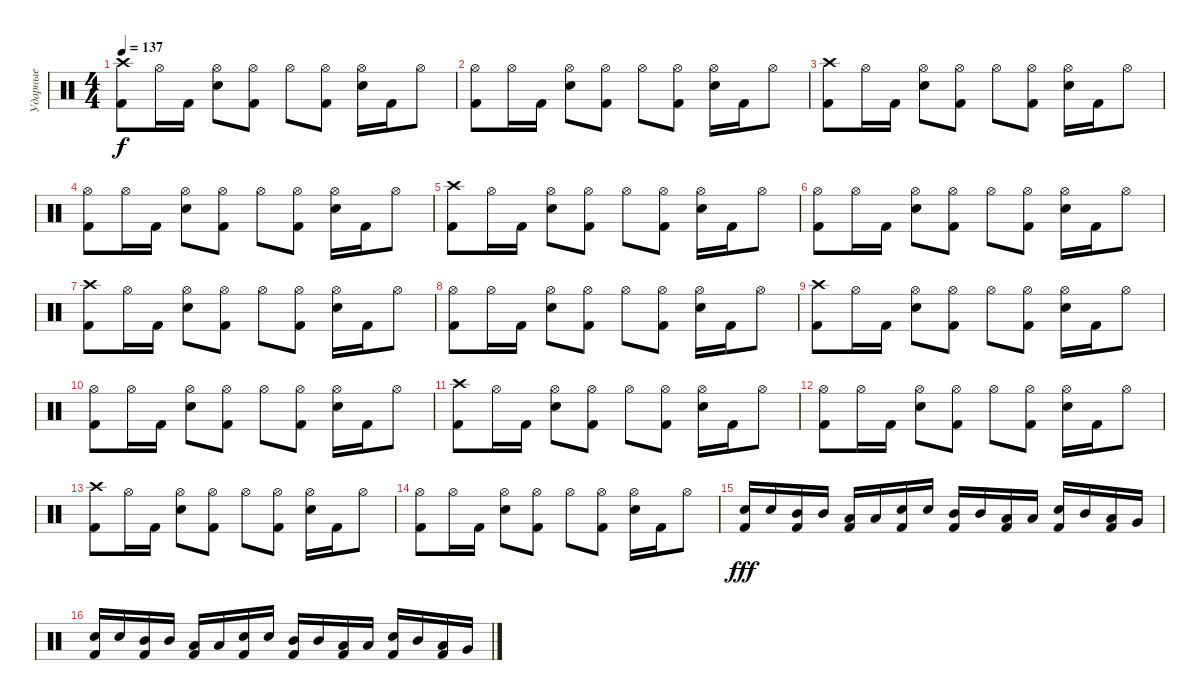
\track ("Ударные" "Ударные") {instrument percussion}
\staff {score}
\articulation defaults
\ts (4 4)
\tempo 137
\clef neutral
\ks c
("Crash high (hit)" "Kick (hit) 2").8{dy f} "Hi-Hat (open)".16 "Kick (hit) 2".16 ("Hi-Hat (open)" "Electric Snare (hit)").8 ("Hi-Hat (open)" "Kick (hit) 2").8 "Hi-Hat (open)".8 ("Hi-Hat (open)" "Kick (hit) 2").8 ("Hi-Hat (open)" "Electric Snare (hit)").16 "Kick (hit) 2".16 "Hi-Hat (open)".8 |
("Hi-Hat (open)" "Kick (hit) 2").8 "Hi-Hat (open)".16 "Kick (hit) 2".16 ("Hi-Hat (open)" "Electric Snare (hit)").8 ("Hi-Hat (open)" "Kick (hit) 2").8 "Hi-Hat (open)".8 ("Hi-Hat (open)" "Kick (hit) 2").8 ("Hi-Hat (open)" "Electric Snare (hit)").16 "Kick (hit) 2".16 "Hi-Hat (open)".8 |
("Crash high (hit)" "Kick (hit) 2").8 "Hi-Hat (open)".16 "Kick (hit) 2".16 ("Hi-Hat (open)" "Electric Snare (hit)").8 ("Hi-Hat (open)" "Kick (hit) 2").8 "Hi-Hat (open)".8 ("Hi-Hat (open)" "Kick (hit) 2").8 ("Hi-Hat (open)" "Electric Snare (hit)").16 "Kick (hit) 2".16 "Hi-Hat (open)".8 |
("Hi-Hat (open)" "Kick (hit) 2").8 "Hi-Hat (open)".16 "Kick (hit) 2".16 ("Hi-Hat (open)" "Electric Snare (hit)").8 ("Hi-Hat (open)" "Kick (hit) 2").8 "Hi-Hat (open)".8 ("Hi-Hat (open)" "Kick (hit) 2").8 ("Hi-Hat (open)" "Electric Snare (hit)").16 "Kick (hit) 2".16 "Hi-Hat (open)".8 |
("Crash high (hit)" "Kick (hit) 2").8 "Hi-Hat (open)".16 "Kick (hit) 2".16 ("Hi-Hat (open)" "Electric Snare (hit)").8 ("Hi-Hat (open)" "Kick (hit) 2").8 "Hi-Hat (open)".8 ("Hi-Hat (open)" "Kick (hit) 2").8 ("Hi-Hat (open)" "Electric Snare (hit)").16 "Kick (hit) 2".16 "Hi-Hat (open)".8 |
("Hi-Hat (open)" "Kick (hit) 2").8 "Hi-Hat (open)".16 "Kick (hit) 2".16 ("Hi-Hat (open)" "Electric Snare (hit)").8 ("Hi-Hat (open)" "Kick (hit) 2").8 "Hi-Hat (open)".8 ("Hi-Hat (open)" "Kick (hit) 2").8 ("Hi-Hat (open)" "Electric Snare (hit)").16 "Kick (hit) 2".16 "Hi-Hat (open)".8 |
("Crash high (hit)" "Kick (hit) 2").8 "Hi-Hat (open)".16 "Kick (hit) 2".16 ("Hi-Hat (open)" "Electric Snare (hit)").8 ("Hi-Hat (open)" "Kick (hit) 2").8 "Hi-Hat (open)".8 ("Hi-Hat (open)" "Kick (hit) 2").8 ("Hi-Hat (open)" "Electric Snare (hit)").16 "Kick (hit) 2".16 "Hi-Hat (open)".8 |
("Hi-Hat (open)" "Kick (hit) 2").8 "Hi-Hat (open)".16 "Kick (hit) 2".16 ("Hi-Hat (open)" "Electric Snare (hit)").8 ("Hi-Hat (open)" "Kick (hit) 2").8 "Hi-Hat (open)".8 ("Hi-Hat (open)" "Kick (hit) 2").8 ("Hi-Hat (open)" "Electric Snare (hit)").16 "Kick (hit) 2".16 "Hi-Hat (open)".8 |
("Crash high (hit)" "Kick (hit) 2").8 "Hi-Hat (open)".16 "Kick (hit) 2".16 ("Hi-Hat (open)" "Electric Snare (hit)").8 ("Hi-Hat (open)" "Kick (hit) 2").8 "Hi-Hat (open)".8 ("Hi-Hat (open)" "Kick (hit) 2").8 ("Hi-Hat (open)" "Electric Snare (hit)").16 "Kick (hit) 2".16 "Hi-Hat (open)".8 |
("Hi-Hat (open)" "Kick (hit) 2").8 "Hi-Hat (open)".16 "Kick (hit) 2".16 ("Hi-Hat (open)" "Electric Snare (hit)").8 ("Hi-Hat (open)" "Kick (hit) 2").8 "Hi-Hat (open)".8 ("Hi-Hat (open)" "Kick (hit) 2").8 ("Hi-Hat (open)" "Electric Snare (hit)").16 "Kick (hit) 2".16 "Hi-Hat (open)".8 |
("Crash high (hit)" "Kick (hit) 2").8 "Hi-Hat (open)".16 "Kick (hit) 2".16 ("Hi-Hat (open)" "Electric Snare (hit)").8 ("Hi-Hat (open)" "Kick (hit) 2").8 "Hi-Hat (open)".8 ("Hi-Hat (open)" "Kick (hit) 2").8 ("Hi-Hat (open)" "Electric Snare (hit)").16 "Kick (hit) 2".16 "Hi-Hat (open)".8 |
("Hi-Hat (open)" "Kick (hit) 2").8 "Hi-Hat (open)".16 "Kick (hit) 2".16 ("Hi-Hat (open)" "Electric Snare (hit)").8 ("Hi-Hat (open)" "Kick (hit) 2").8 "Hi-Hat (open)".8 ("Hi-Hat (open)" "Kick (hit) 2").8 ("Hi-Hat (open)" "Electric Snare (hit)").16 "Kick (hit) 2".16 "Hi-Hat (open)".8 |
("Crash high (hit)" "Kick (hit) 2").8 "Hi-Hat (open)".16 "Kick (hit) 2".16 ("Hi-Hat (open)" "Electric Snare (hit)").8 ("Hi-Hat (open)" "Kick (hit) 2").8 "Hi-Hat (open)".8 ("Hi-Hat (open)" "Kick (hit) 2").8 ("Hi-Hat (open)" "Electric Snare (hit)").16 "Kick (hit) 2".16 "Hi-Hat (open)".8 |
("Hi-Hat (open)" "Kick (hit) 2").8 "Hi-Hat (open)".16 "Kick (hit) 2".16 ("Hi-Hat (open)" "Electric Snare (hit)").8 ("Hi-Hat (open)" "Kick (hit) 2").8 "Hi-Hat (open)".8 ("Hi-Hat (open)" "Kick (hit) 2").8 ("Hi-Hat (open)" "Electric Snare (hit)").16 "Kick (hit) 2".16 "Hi-Hat (open)".8 |
("Snare (hit) 2" "Kick (hit) 2").16{dy fff} "Snare (hit) 2".16 ("Mid Tom (hit)" "Kick (hit) 2").16 "Mid Tom (hit)".16 ("Low Tom (hit)" "Kick (hit) 2").16 "Low Tom (hit)".16 ("Snare (hit) 2" "Kick (hit) 2").16 "Snare (hit) 2".16 ("Mid Tom (hit)" "Kick (hit) 2").16 "Mid Tom (hit)".16 ("Low Tom (hit)" "Kick (hit) 2").16 "Low Tom (hit)".16 ("Snare (hit) 2" "Kick (hit) 2").16 "Mid Tom (hit)".16 ("Low Tom (hit)" "Kick (hit) 2").16 "Very Low Tom (hit)".16 |
("Snare (hit) 2" "Kick (hit) 2").16 "Snare (hit) 2".16 ("Mid Tom (hit)" "Kick (hit) 2").16 "Mid Tom (hit)".16 ("Low Tom (hit)" "Kick (hit) 2").16 "Low Tom (hit)".16 ("Snare (hit) 2" "Kick (hit) 2").16 "Snare (hit) 2".16 ("Mid Tom (hit)" "Kick (hit) 2").16 "Mid Tom (hit)".16 ("Low Tom (hit)" "Kick (hit) 2").16 "Low Tom (hit)".16 ("Snare (hit) 2" "Kick (hit) 2").16 "Mid Tom (hit)".16 ("Low Tom (hit)" "Kick (hit) 2").16 "Very Low Tom (hit)".16
